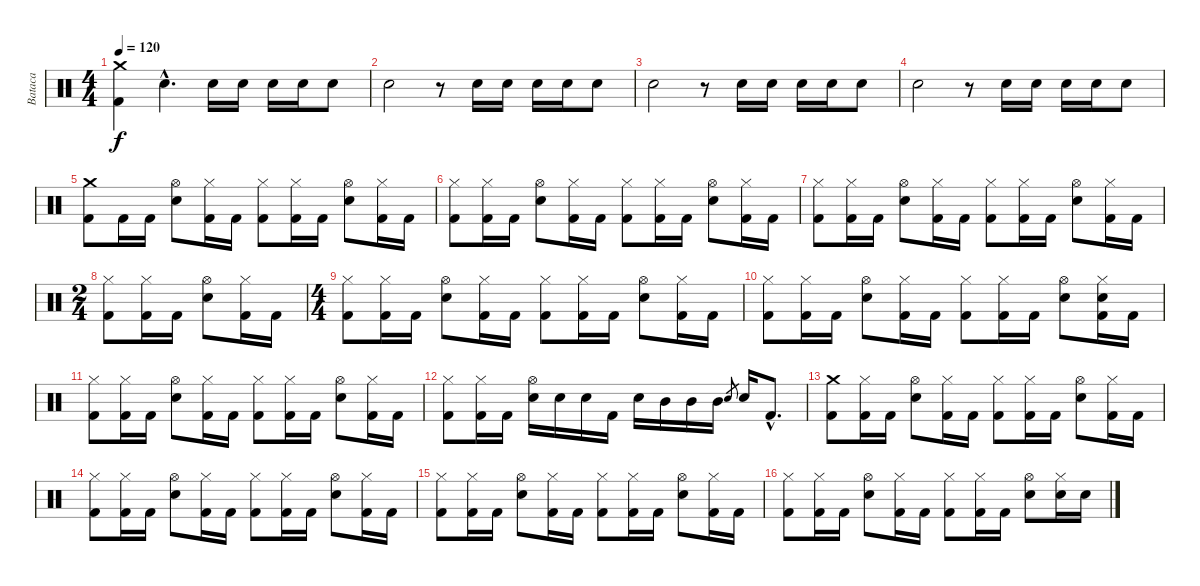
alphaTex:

\track ("Bataca" "Bataca") {instrument percussion}
\staff {score}
\articulation defaults
\ts (4 4)
\tempo 120
\clef neutral
\ks c
("Crash medium (hit)" "Kick (hit) 2").4{dy f} "Electric Snare (hit)"{hac}.4{d} "Electric Snare (hit)".16 "Electric Snare (hit)".16 "Electric Snare (hit)".16 "Electric Snare (hit)".16 "Electric Snare (hit)".8 |
"Electric Snare (hit)".2 r.8 "Electric Snare (hit)".16 "Electric Snare (hit)".16 "Electric Snare (hit)".16 "Electric Snare (hit)".16 "Electric Snare (hit)".8 |
"Electric Snare (hit)".2 r.8 "Electric Snare (hit)".16 "Electric Snare (hit)".16 "Electric Snare (hit)".16 "Electric Snare (hit)".16 "Electric Snare (hit)".8 |
"Electric Snare (hit)".2 r.8 "Electric Snare (hit)".16 "Electric Snare (hit)".16 "Electric Snare (hit)".16 "Electric Snare (hit)".16 "Electric Snare (hit)".8 |
("Crash medium (hit)" "Kick (hit) 2").8 "Kick (hit) 2".16 "Kick (hit) 2".16 ("Hi-Hat (open)" "Electric Snare (hit)").8 ("Hi-Hat (closed)" "Kick (hit) 2").16 "Kick (hit) 2".16 ("Hi-Hat (closed)" "Kick (hit) 2").8 ("Hi-Hat (closed)" "Kick (hit) 2").16 "Kick (hit) 2".16 ("Hi-Hat (open)" "Electric Snare (hit)").8 ("Hi-Hat (closed)" "Kick (hit) 2").16 "Kick (hit) 2".16 |
("Hi-Hat (closed)" "Kick (hit) 2").8 ("Hi-Hat (closed)" "Kick (hit) 2").16 "Kick (hit) 2".16 ("Hi-Hat (open)" "Electric Snare (hit)").8 ("Hi-Hat (closed)" "Kick (hit) 2").16 "Kick (hit) 2".16 ("Hi-Hat (closed)" "Kick (hit) 2").8 ("Hi-Hat (closed)" "Kick (hit) 2").16 "Kick (hit) 2".16 ("Hi-Hat (open)" "Electric Snare (hit)").8 ("Hi-Hat (closed)" "Kick (hit) 2").16 "Kick (hit) 2".16 |
("Hi-Hat (closed)" "Kick (hit) 2").8 ("Hi-Hat (closed)" "Kick (hit) 2").16 "Kick (hit) 2".16 ("Hi-Hat (open)" "Electric Snare (hit)").8 ("Hi-Hat (closed)" "Kick (hit) 2").16 "Kick (hit) 2".16 ("Hi-Hat (closed)" "Kick (hit) 2").8 ("Hi-Hat (closed)" "Kick (hit) 2").16 "Kick (hit) 2".16 ("Hi-Hat (open)" "Electric Snare (hit)").8 ("Hi-Hat (closed)" "Kick (hit) 2").16 "Kick (hit) 2".16 |
\ts (2 4)
("Hi-Hat (closed)" "Kick (hit) 2").8 ("Hi-Hat (closed)" "Kick (hit) 2").16 "Kick (hit) 2".16 ("Hi-Hat (open)" "Electric Snare (hit)").8 ("Hi-Hat (closed)" "Kick (hit) 2").16 "Kick (hit) 2".16 |
\ts (4 4)
("Hi-Hat (closed)" "Kick (hit) 2").8 ("Hi-Hat (closed)" "Kick (hit) 2").16 "Kick (hit) 2".16 ("Hi-Hat (open)" "Electric Snare (hit)").8 ("Hi-Hat (closed)" "Kick (hit) 2").16 "Kick (hit) 2".16 ("Hi-Hat (closed)" "Kick (hit) 2").8 ("Hi-Hat (closed)" "Kick (hit) 2").16 "Kick (hit) 2".16 ("Hi-Hat (open)" "Electric Snare (hit)").8 ("Hi-Hat (closed)" "Kick (hit) 2").16 "Kick (hit) 2".16 |
("Hi-Hat (closed)" "Kick (hit) 2").8 ("Hi-Hat (closed)" "Kick (hit) 2").16 "Kick (hit) 2".16 ("Hi-Hat (open)" "Electric Snare (hit)").8 ("Hi-Hat (closed)" "Kick (hit) 2").16 "Kick (hit) 2".16 ("Hi-Hat (closed)" "Kick (hit) 2").8 ("Hi-Hat (closed)" "Kick (hit) 2").16 "Kick (hit) 2".16 ("Hi-Hat (open)" "Electric Snare (hit)").8 ("Hi-Hat (closed)" "Electric Snare (hit)" "Kick (hit) 2").16 "Kick (hit) 2".16 |
("Hi-Hat (closed)" "Kick (hit) 2").8 ("Hi-Hat (closed)" "Kick (hit) 2").16 "Kick (hit) 2".16 ("Hi-Hat (open)" "Electric Snare (hit)").8 ("Hi-Hat (closed)" "Kick (hit) 2").16 "Kick (hit) 2".16 ("Hi-Hat (closed)" "Kick (hit) 2").8 ("Hi-Hat (closed)" "Kick (hit) 2").16 "Kick (hit) 2".16 ("Hi-Hat (open)" "Electric Snare (hit)").8 ("Hi-Hat (closed)" "Kick (hit) 2").16 "Kick (hit) 2".16 |
("Hi-Hat (closed)" "Kick (hit) 2").8 ("Hi-Hat (closed)" "Kick (hit) 2").16 "Kick (hit) 2".16 ("Hi-Hat (open)" "Electric Snare (hit)").16 "Electric Snare (hit)".16 "Electric Snare (hit)".16 "Kick (hit) 2".16 "Electric Snare (hit)".16 "Mid Tom (hit)".16 "Mid Tom (hit)".16 "Mid Tom (hit)".16 "Electric Snare (hit)".8{gr} "Electric Snare (hit)".16 "Kick (hit) 2"{hac}.8{d} |
("Crash medium (hit)" "Kick (hit) 2").8 ("Hi-Hat (closed)" "Kick (hit) 2").16 "Kick (hit) 2".16 ("Hi-Hat (open)" "Electric Snare (hit)").8 ("Hi-Hat (closed)" "Kick (hit) 2").16 "Kick (hit) 2".16 ("Hi-Hat (closed)" "Kick (hit) 2").8 ("Hi-Hat (closed)" "Kick (hit) 2").16 "Kick (hit) 2".16 ("Hi-Hat (open)" "Electric Snare (hit)").8 ("Hi-Hat (closed)" "Kick (hit) 2").16 "Kick (hit) 2".16 |
("Hi-Hat (closed)" "Kick (hit) 2").8 ("Hi-Hat (closed)" "Kick (hit) 2").16 "Kick (hit) 2".16 ("Hi-Hat (open)" "Electric Snare (hit)").8 ("Hi-Hat (closed)" "Kick (hit) 2").16 "Kick (hit) 2".16 ("Hi-Hat (closed)" "Kick (hit) 2").8 ("Hi-Hat (closed)" "Kick (hit) 2").16 "Kick (hit) 2".16 ("Hi-Hat (open)" "Electric Snare (hit)").8 ("Hi-Hat (closed)" "Kick (hit) 2").16 "Kick (hit) 2".16 |
("Hi-Hat (closed)" "Kick (hit) 2").8 ("Hi-Hat (closed)" "Kick (hit) 2").16 "Kick (hit) 2".16 ("Hi-Hat (open)" "Electric Snare (hit)").8 ("Hi-Hat (closed)" "Kick (hit) 2").16 "Kick (hit) 2".16 ("Hi-Hat (closed)" "Kick (hit) 2").8 ("Hi-Hat (closed)" "Kick (hit) 2").16 "Kick (hit) 2".16 ("Hi-Hat (open)" "Electric Snare (hit)").8 ("Hi-Hat (closed)" "Kick (hit) 2").16 "Kick (hit) 2".16 |
("Hi-Hat (closed)" "Kick (hit) 2").8 ("Hi-Hat (closed)" "Kick (hit) 2").16 "Kick (hit) 2".16 ("Hi-Hat (open)" "Electric Snare (hit)").8 ("Hi-Hat (closed)" "Kick (hit) 2").16 "Kick (hit) 2".16 ("Hi-Hat (closed)" "Kick (hit) 2").8 ("Hi-Hat (closed)" "Kick (hit) 2").16 "Kick (hit) 2".16 ("Hi-Hat (open)" "Electric Snare (hit)").8 ("Hi-Hat (closed)" "Electric Snare (hit)").16 "Electric Snare (hit)".16
